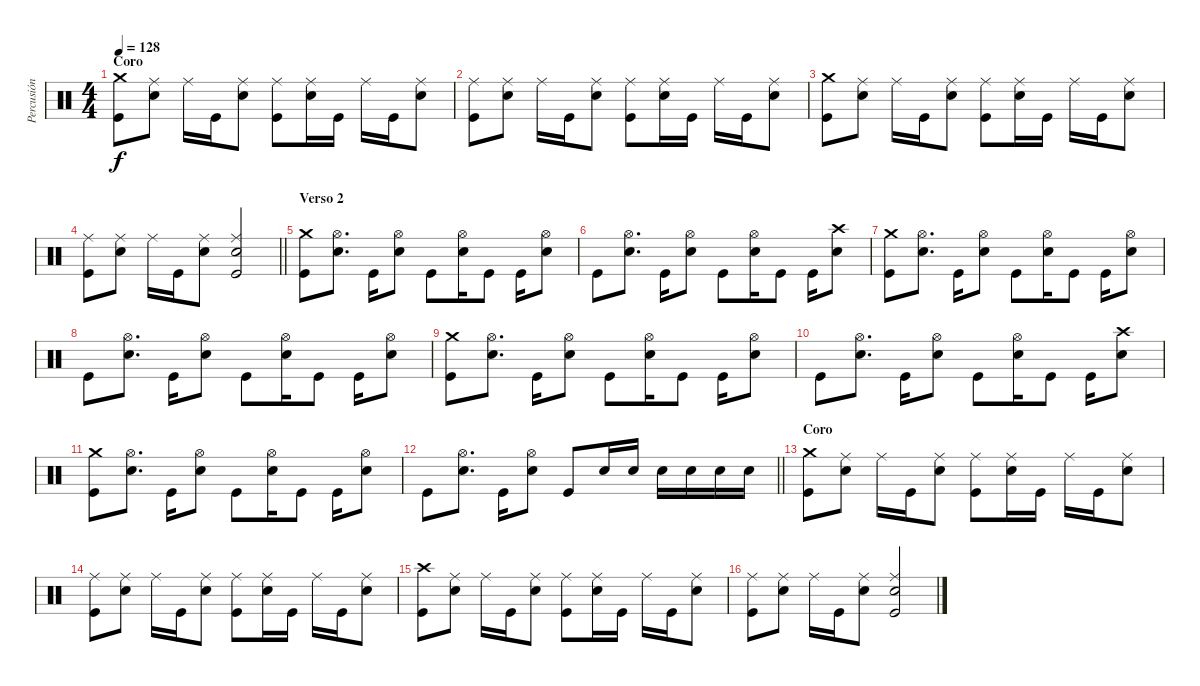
\track ("Percusión" "Percusión") {instrument percussion}
\staff {score}
\articulation defaults
\ts (4 4)
\section ("" "Coro")
\tempo 128
\clef neutral
\ks c
("Crash medium (hit)" "Kick (hit)").8{dy f} ("Ride (middle)" "Snare (hit) 2").8 "Ride (middle)".16 "Kick (hit)".16 ("Ride (middle)" "Snare (hit) 2").8 ("Ride (middle)" "Kick (hit)").8 ("Ride (middle)" "Snare (hit) 2").16 "Kick (hit)".16 "Ride (middle)".16 "Kick (hit)".16 ("Ride (middle)" "Snare (hit) 2").8 |
("Ride (middle)" "Kick (hit)").8 ("Ride (middle)" "Snare (hit) 2").8 "Ride (middle)".16 "Kick (hit)".16 ("Ride (middle)" "Snare (hit) 2").8 ("Ride (middle)" "Kick (hit)").8 ("Ride (middle)" "Snare (hit) 2").16 "Kick (hit)".16 "Ride (middle)".16 "Kick (hit)".16 ("Ride (middle)" "Snare (hit) 2").8 |
("Crash medium (hit)" "Kick (hit)").8 ("Ride (middle)" "Snare (hit) 2").8 "Ride (middle)".16 "Kick (hit)".16 ("Ride (middle)" "Snare (hit) 2").8 ("Ride (middle)" "Kick (hit)").8 ("Ride (middle)" "Snare (hit) 2").16 "Kick (hit)".16 "Ride (middle)".16 "Kick (hit)".16 ("Ride (middle)" "Snare (hit) 2").8 |
\barLineRight lightlight
("Ride (middle)" "Kick (hit)").8 ("Ride (middle)" "Snare (hit) 2").8 "Ride (middle)".16 "Kick (hit)".16 ("Ride (middle)" "Snare (hit) 2").8 ("Ride (middle)" "Snare (hit) 2" "Kick (hit)").2 |
\section ("" "Verso 2")
("Crash medium (hit)" "Kick (hit)").8 ("Hi-Hat (open)" "Snare (hit) 2").8{d} "Kick (hit)".16 ("Hi-Hat (open)" "Snare (hit) 2").8 "Kick (hit)".8 ("Hi-Hat (open)" "Snare (hit) 2").16 "Kick (hit)".8 "Kick (hit)".16 ("Hi-Hat (open)" "Snare (hit) 2").8 |
"Kick (hit)".8 ("Hi-Hat (open)" "Snare (hit) 2").8{d} "Kick (hit)".16 ("Hi-Hat (open)" "Snare (hit) 2").8 "Kick (hit)".8 ("Hi-Hat (open)" "Snare (hit) 2").16 "Kick (hit)".8 "Kick (hit)".16 ("Crash high (hit)" "Snare (hit) 2").8 |
("Crash medium (hit)" "Kick (hit)").8 ("Hi-Hat (open)" "Snare (hit) 2").8{d} "Kick (hit)".16 ("Hi-Hat (open)" "Snare (hit) 2").8 "Kick (hit)".8 ("Hi-Hat (open)" "Snare (hit) 2").16 "Kick (hit)".8 "Kick (hit)".16 ("Hi-Hat (open)" "Snare (hit) 2").8 |
"Kick (hit)".8 ("Hi-Hat (open)" "Snare (hit) 2").8{d} "Kick (hit)".16 ("Hi-Hat (open)" "Snare (hit) 2").8 "Kick (hit)".8 ("Hi-Hat (open)" "Snare (hit) 2").16 "Kick (hit)".8 "Kick (hit)".16 ("Hi-Hat (open)" "Snare (hit) 2").8 |
("Crash medium (hit)" "Kick (hit)").8 ("Hi-Hat (open)" "Snare (hit) 2").8{d} "Kick (hit)".16 ("Hi-Hat (open)" "Snare (hit) 2").8 "Kick (hit)".8 ("Hi-Hat (open)" "Snare (hit) 2").16 "Kick (hit)".8 "Kick (hit)".16 ("Hi-Hat (open)" "Snare (hit) 2").8 |
"Kick (hit)".8 ("Hi-Hat (open)" "Snare (hit) 2").8{d} "Kick (hit)".16 ("Hi-Hat (open)" "Snare (hit) 2").8 "Kick (hit)".8 ("Hi-Hat (open)" "Snare (hit) 2").16 "Kick (hit)".8 "Kick (hit)".16 ("Crash high (hit)" "Snare (hit) 2").8 |
("Crash medium (hit)" "Kick (hit)").8 ("Hi-Hat (open)" "Snare (hit) 2").8{d} "Kick (hit)".16 ("Hi-Hat (open)" "Snare (hit) 2").8 "Kick (hit)".8 ("Hi-Hat (open)" "Snare (hit) 2").16 "Kick (hit)".8 "Kick (hit)".16 ("Hi-Hat (open)" "Snare (hit) 2").8 |
\barLineRight lightlight "Kick (hit)".8
("Hi-Hat (open)" "Snare (hit) 2").8{d} "Kick (hit)".16 ("Hi-Hat (open)" "Snare (hit) 2").8 "Kick (hit)".8 "Snare (hit) 2".16 "Snare (hit) 2".16 "Snare (hit) 2".16 "Snare (hit) 2".16 "Snare (hit) 2".16 "Snare (hit) 2".16 |
\section ("" "Coro")
("Crash medium (hit)" "Kick (hit)").8 ("Ride (middle)" "Snare (hit) 2").8 "Ride (middle)".16 "Kick (hit)".16 ("Ride (middle)" "Snare (hit) 2").8 ("Ride (middle)" "Kick (hit)").8 ("Ride (middle)" "Snare (hit) 2").16 "Kick (hit)".16 "Ride (middle)".16 "Kick (hit)".16 ("Ride (middle)" "Snare (hit) 2").8 |
("Ride (middle)" "Kick (hit)").8 ("Ride (middle)" "Snare (hit) 2").8 "Ride (middle)".16 "Kick (hit)".16 ("Ride (middle)" "Snare (hit) 2").8 ("Ride (middle)" "Kick (hit)").8 ("Ride (middle)" "Snare (hit) 2").16 "Kick (hit)".16 "Ride (middle)".16 "Kick (hit)".16 ("Ride (middle)" "Snare (hit) 2").8 |
("Crash high (hit)" "Kick (hit)").8 ("Ride (middle)" "Snare (hit) 2").8 "Ride (middle)".16 "Kick (hit)".16 ("Ride (middle)" "Snare (hit) 2").8 ("Ride (middle)" "Kick (hit)").8 ("Ride (middle)" "Snare (hit) 2").16 "Kick (hit)".16 "Ride (middle)".16 "Kick (hit)".16 ("Ride (middle)" "Snare (hit) 2").8 |
("Ride (middle)" "Kick (hit)").8 ("Ride (middle)" "Snare (hit) 2").8 "Ride (middle)".16 "Kick (hit)".16 ("Ride (middle)" "Snare (hit) 2").8 ("Ride (middle)" "Snare (hit) 2" "Kick (hit)").2
